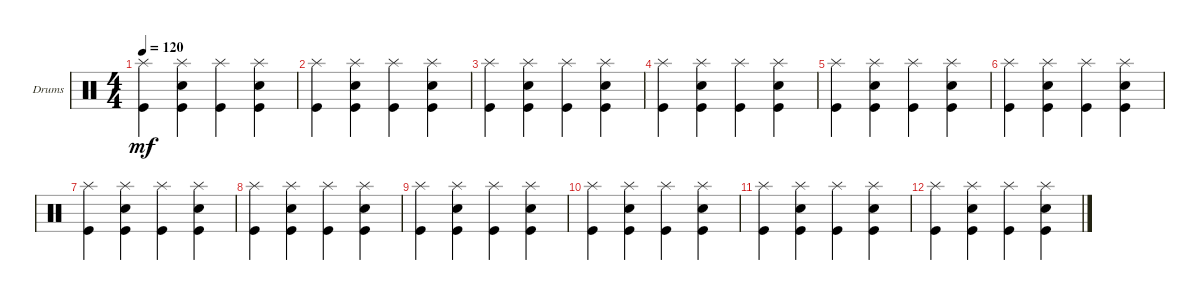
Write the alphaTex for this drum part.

\bracketExtendMode groupsimilarinstruments
\firstSystemTrackNameOrientation horizontal
\otherSystemsTrackNameOrientation horizontal
\track ("Drumkit" "Drums") {instrument percussion}
\staff {score}
\articulation defaults
\ts (4 4)
\tempo 120
\clef neutral
\ks c
("Splash (hit)" "Kick (hit)").4{dy mf} ("Splash (hit)" "Kick (hit)" "Snare (hit) 2").4 ("Splash (hit)" "Kick (hit)").4 ("Splash (hit)" "Kick (hit)" "Snare (hit) 2").4 |
("Splash (hit)" "Kick (hit)").4 ("Splash (hit)" "Kick (hit)" "Snare (hit) 2").4 ("Splash (hit)" "Kick (hit)").4 ("Splash (hit)" "Kick (hit)" "Snare (hit) 2").4 |
("Splash (hit)" "Kick (hit)").4 ("Splash (hit)" "Kick (hit)" "Snare (hit) 2").4 ("Splash (hit)" "Kick (hit)").4 ("Splash (hit)" "Kick (hit)" "Snare (hit) 2").4 |
("Splash (hit)" "Kick (hit)").4 ("Splash (hit)" "Kick (hit)" "Snare (hit) 2").4 ("Splash (hit)" "Kick (hit)").4 ("Splash (hit)" "Kick (hit)" "Snare (hit) 2").4 |
("Splash (hit)" "Kick (hit)").4 ("Splash (hit)" "Kick (hit)" "Snare (hit) 2").4 ("Splash (hit)" "Kick (hit)").4 ("Splash (hit)" "Kick (hit)" "Snare (hit) 2").4 |
("Splash (hit)" "Kick (hit)").4 ("Splash (hit)" "Kick (hit)" "Snare (hit) 2").4 ("Splash (hit)" "Kick (hit)").4 ("Splash (hit)" "Kick (hit)" "Snare (hit) 2").4 |
("Splash (hit)" "Kick (hit)").4 ("Splash (hit)" "Kick (hit)" "Snare (hit) 2").4 ("Splash (hit)" "Kick (hit)").4 ("Splash (hit)" "Kick (hit)" "Snare (hit) 2").4 |
("Splash (hit)" "Kick (hit)").4 ("Splash (hit)" "Kick (hit)" "Snare (hit) 2").4 ("Splash (hit)" "Kick (hit)").4 ("Splash (hit)" "Kick (hit)" "Snare (hit) 2").4 |
("Splash (hit)" "Kick (hit)").4 ("Splash (hit)" "Kick (hit)" "Snare (hit) 2").4 ("Splash (hit)" "Kick (hit)").4 ("Splash (hit)" "Kick (hit)" "Snare (hit) 2").4 |
("Splash (hit)" "Kick (hit)").4 ("Splash (hit)" "Kick (hit)" "Snare (hit) 2").4 ("Splash (hit)" "Kick (hit)").4 ("Splash (hit)" "Kick (hit)" "Snare (hit) 2").4 |
("Splash (hit)" "Kick (hit)").4 ("Splash (hit)" "Kick (hit)" "Snare (hit) 2").4 ("Splash (hit)" "Kick (hit)").4 ("Splash (hit)" "Kick (hit)" "Snare (hit) 2").4 |
("Splash (hit)" "Kick (hit)").4 ("Splash (hit)" "Kick (hit)" "Snare (hit) 2").4 ("Splash (hit)" "Kick (hit)").4 ("Splash (hit)" "Kick (hit)" "Snare (hit) 2").4
